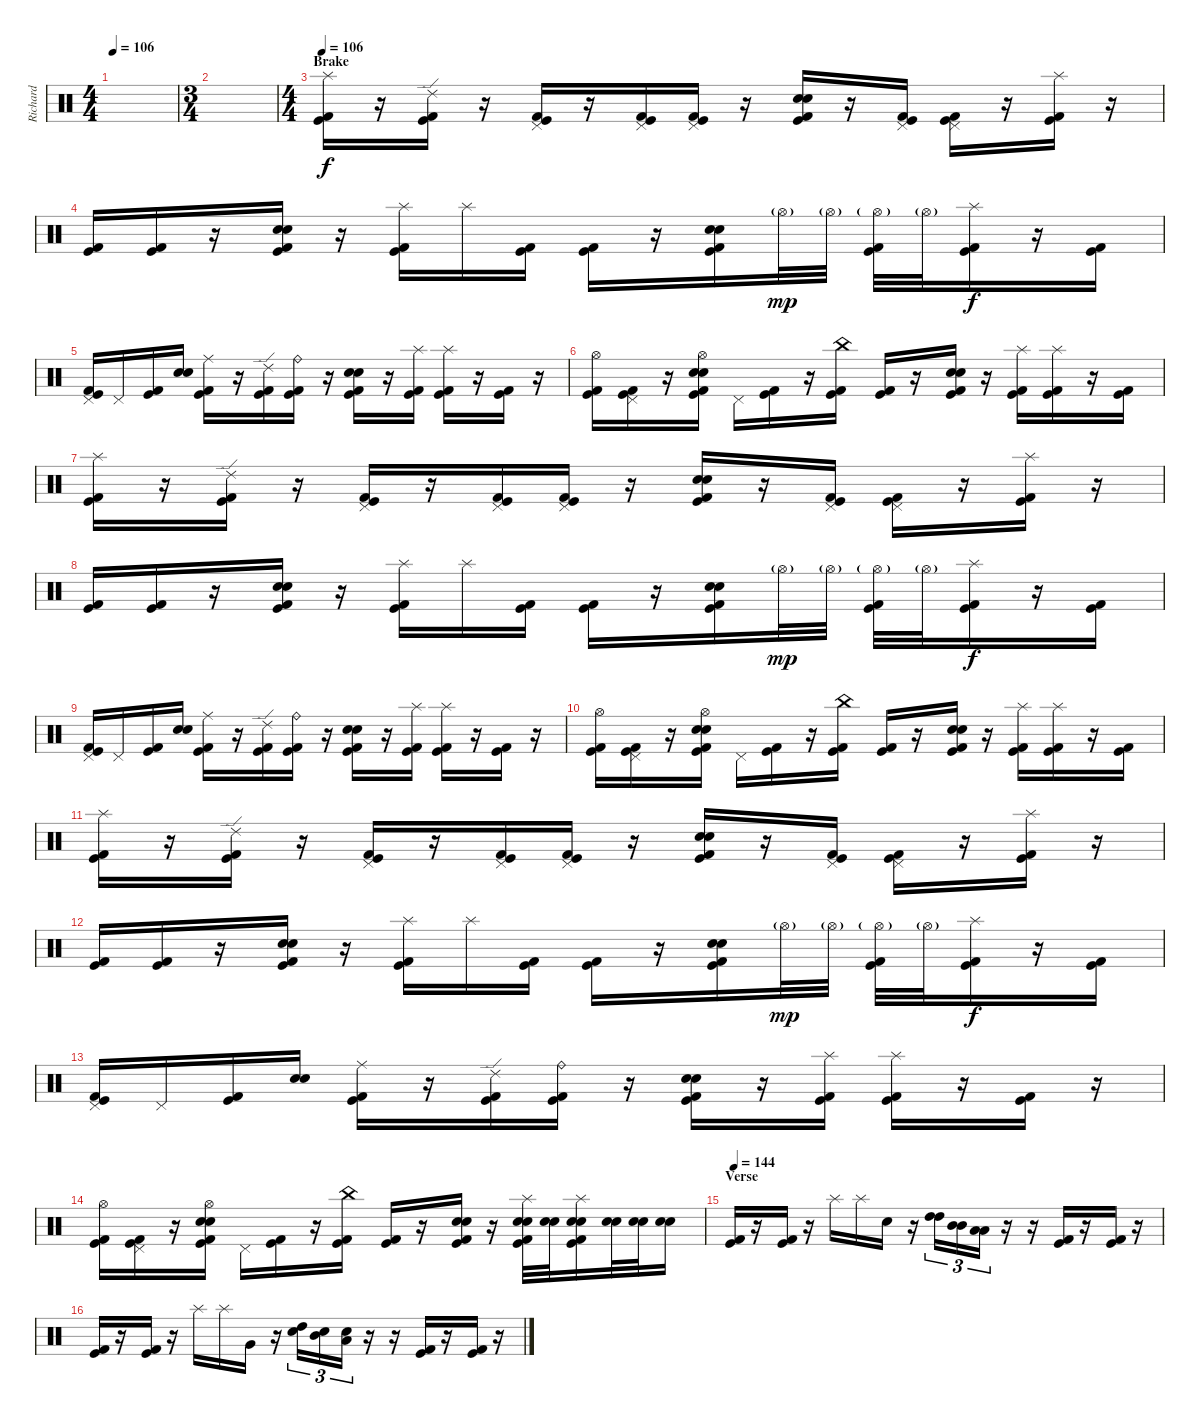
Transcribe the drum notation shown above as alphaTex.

\track ("Richard" "Richard") {instrument percussion}
\staff {score}
\articulation defaults
\ts (4 4)
\tempo 106
\clef neutral
\ks c
|
\ts (3 4)
|
\ts (4 4)
\section ("" "Brake")
\tempo 106
("Splash (hit)" "Kick (hit)" "Kick (hit) 2").16 r.16 ("Ride (edge) 2" "Kick (hit)" "Kick (hit) 2").16 r.16 ("Pedal Hi-Hat (hit)" "Kick (hit)" "Kick (hit) 2").16 r.16 ("Pedal Hi-Hat (hit)" "Kick (hit)" "Kick (hit) 2").16 ("Pedal Hi-Hat (hit)" "Kick (hit)" "Kick (hit) 2").16 r.16 ("Snare (hit) 2" "Electric Snare (hit)" "Kick (hit)" "Kick (hit) 2").16 r.16 ("Pedal Hi-Hat (hit)" "Kick (hit)" "Kick (hit) 2").16 ("Pedal Hi-Hat (hit)" "Kick (hit)" "Kick (hit) 2").16 r.16 ("Splash (hit)" "Kick (hit)" "Kick (hit) 2").16 r.16 |
("Kick (hit)" "Kick (hit) 2").16 ("Kick (hit)" "Kick (hit) 2").16 r.16 ("Snare (hit) 2" "Electric Snare (hit)" "Kick (hit)" "Kick (hit) 2").16 r.16 ("Splash (hit)" "Kick (hit)" "Kick (hit) 2").16 "Splash (hit)".16 ("Kick (hit)" "Kick (hit) 2").16 ("Kick (hit)" "Kick (hit) 2").16 r.16 ("Snare (hit) 2" "Electric Snare (hit)" "Kick (hit)" "Kick (hit) 2").16 "Hi-Hat (open)"{g}.32{dy mp} "Hi-Hat (open)"{g}.32 ("Hi-Hat (open)"{g} "Kick (hit)" "Kick (hit) 2").32 "Hi-Hat (open)"{g}.32 ("Splash (hit)" "Kick (hit)" "Kick (hit) 2").16{dy f} r.16 ("Kick (hit)" "Kick (hit) 2").16 |
("Pedal Hi-Hat (hit)" "Kick (hit)" "Kick (hit) 2").16 "Pedal Hi-Hat (hit)".16 ("Kick (hit)" "Kick (hit) 2").16 ("Snare (hit) 2" "Electric Snare (hit)").16 ("Ride (middle)" "Kick (hit)" "Kick (hit) 2").16 r.16 ("Ride (edge) 2" "Kick (hit)" "Kick (hit) 2").16 ("Ride (bell)" "Kick (hit)" "Kick (hit) 2").16 r.16 ("Snare (hit) 2" "Electric Snare (hit)" "Kick (hit)" "Kick (hit) 2").16 r.16 ("Splash (hit)" "Kick (hit)" "Kick (hit) 2").16 ("Splash (hit)" "Kick (hit)" "Kick (hit) 2").16 r.16 ("Kick (hit)" "Kick (hit) 2").16 r.16 |
("Hi-Hat (open)" "Kick (hit)" "Kick (hit) 2").16 ("Pedal Hi-Hat (hit)" "Kick (hit)" "Kick (hit) 2").16 r.16 ("Hi-Hat (open)" "Snare (hit) 2" "Electric Snare (hit)" "Kick (hit)" "Kick (hit) 2").16 "Pedal Hi-Hat (hit)".16 ("Kick (hit)" "Kick (hit) 2").16 r.16 ("China (hit)" "Kick (hit)" "Kick (hit) 2").16 ("Kick (hit)" "Kick (hit) 2").16 r.16 ("Snare (hit) 2" "Electric Snare (hit)" "Kick (hit)" "Kick (hit) 2").16 r.16 ("Splash (hit)" "Kick (hit)" "Kick (hit) 2").16 ("Splash (hit)" "Kick (hit)" "Kick (hit) 2").16 r.16 ("Kick (hit)" "Kick (hit) 2").16 |
("Splash (hit)" "Kick (hit)" "Kick (hit) 2").16 r.16 ("Ride (edge) 2" "Kick (hit)" "Kick (hit) 2").16 r.16 ("Pedal Hi-Hat (hit)" "Kick (hit)" "Kick (hit) 2").16 r.16 ("Pedal Hi-Hat (hit)" "Kick (hit)" "Kick (hit) 2").16 ("Pedal Hi-Hat (hit)" "Kick (hit)" "Kick (hit) 2").16 r.16 ("Snare (hit) 2" "Electric Snare (hit)" "Kick (hit)" "Kick (hit) 2").16 r.16 ("Pedal Hi-Hat (hit)" "Kick (hit)" "Kick (hit) 2").16 ("Pedal Hi-Hat (hit)" "Kick (hit)" "Kick (hit) 2").16 r.16 ("Splash (hit)" "Kick (hit)" "Kick (hit) 2").16 r.16 |
("Kick (hit)" "Kick (hit) 2").16 ("Kick (hit)" "Kick (hit) 2").16 r.16 ("Snare (hit) 2" "Electric Snare (hit)" "Kick (hit)" "Kick (hit) 2").16 r.16 ("Splash (hit)" "Kick (hit)" "Kick (hit) 2").16 "Splash (hit)".16 ("Kick (hit)" "Kick (hit) 2").16 ("Kick (hit)" "Kick (hit) 2").16 r.16 ("Snare (hit) 2" "Electric Snare (hit)" "Kick (hit)" "Kick (hit) 2").16 "Hi-Hat (open)"{g}.32{dy mp} "Hi-Hat (open)"{g}.32 ("Hi-Hat (open)"{g} "Kick (hit)" "Kick (hit) 2").32 "Hi-Hat (open)"{g}.32 ("Splash (hit)" "Kick (hit)" "Kick (hit) 2").16{dy f} r.16 ("Kick (hit)" "Kick (hit) 2").16 |
("Pedal Hi-Hat (hit)" "Kick (hit)" "Kick (hit) 2").16 "Pedal Hi-Hat (hit)".16 ("Kick (hit)" "Kick (hit) 2").16 ("Snare (hit) 2" "Electric Snare (hit)").16 ("Ride (middle)" "Kick (hit)" "Kick (hit) 2").16 r.16 ("Ride (edge) 2" "Kick (hit)" "Kick (hit) 2").16 ("Ride (bell)" "Kick (hit)" "Kick (hit) 2").16 r.16 ("Snare (hit) 2" "Electric Snare (hit)" "Kick (hit)" "Kick (hit) 2").16 r.16 ("Splash (hit)" "Kick (hit)" "Kick (hit) 2").16 ("Splash (hit)" "Kick (hit)" "Kick (hit) 2").16 r.16 ("Kick (hit)" "Kick (hit) 2").16 r.16 |
("Hi-Hat (open)" "Kick (hit)" "Kick (hit) 2").16 ("Pedal Hi-Hat (hit)" "Kick (hit)" "Kick (hit) 2").16 r.16 ("Hi-Hat (open)" "Snare (hit) 2" "Electric Snare (hit)" "Kick (hit)" "Kick (hit) 2").16 "Pedal Hi-Hat (hit)".16 ("Kick (hit)" "Kick (hit) 2").16 r.16 ("China (hit)" "Kick (hit)" "Kick (hit) 2").16 ("Kick (hit)" "Kick (hit) 2").16 r.16 ("Snare (hit) 2" "Electric Snare (hit)" "Kick (hit)" "Kick (hit) 2").16 r.16 ("Splash (hit)" "Kick (hit)" "Kick (hit) 2").16 ("Splash (hit)" "Kick (hit)" "Kick (hit) 2").16 r.16 ("Kick (hit)" "Kick (hit) 2").16 |
("Splash (hit)" "Kick (hit)" "Kick (hit) 2").16 r.16 ("Ride (edge) 2" "Kick (hit)" "Kick (hit) 2").16 r.16 ("Pedal Hi-Hat (hit)" "Kick (hit)" "Kick (hit) 2").16 r.16 ("Pedal Hi-Hat (hit)" "Kick (hit)" "Kick (hit) 2").16 ("Pedal Hi-Hat (hit)" "Kick (hit)" "Kick (hit) 2").16 r.16 ("Snare (hit) 2" "Electric Snare (hit)" "Kick (hit)" "Kick (hit) 2").16 r.16 ("Pedal Hi-Hat (hit)" "Kick (hit)" "Kick (hit) 2").16 ("Pedal Hi-Hat (hit)" "Kick (hit)" "Kick (hit) 2").16 r.16 ("Splash (hit)" "Kick (hit)" "Kick (hit) 2").16 r.16 |
("Kick (hit)" "Kick (hit) 2").16 ("Kick (hit)" "Kick (hit) 2").16 r.16 ("Snare (hit) 2" "Electric Snare (hit)" "Kick (hit)" "Kick (hit) 2").16 r.16 ("Splash (hit)" "Kick (hit)" "Kick (hit) 2").16 "Splash (hit)".16 ("Kick (hit)" "Kick (hit) 2").16 ("Kick (hit)" "Kick (hit) 2").16 r.16 ("Snare (hit) 2" "Electric Snare (hit)" "Kick (hit)" "Kick (hit) 2").16 "Hi-Hat (open)"{g}.32{dy mp} "Hi-Hat (open)"{g}.32 ("Hi-Hat (open)"{g} "Kick (hit)" "Kick (hit) 2").32 "Hi-Hat (open)"{g}.32 ("Splash (hit)" "Kick (hit)" "Kick (hit) 2").16{dy f} r.16 ("Kick (hit)" "Kick (hit) 2").16 |
("Pedal Hi-Hat (hit)" "Kick (hit)" "Kick (hit) 2").16 "Pedal Hi-Hat (hit)".16 ("Kick (hit)" "Kick (hit) 2").16 ("Snare (hit) 2" "Electric Snare (hit)").16 ("Ride (middle)" "Kick (hit)" "Kick (hit) 2").16 r.16 ("Ride (edge) 2" "Kick (hit)" "Kick (hit) 2").16 ("Ride (bell)" "Kick (hit)" "Kick (hit) 2").16 r.16 ("Snare (hit) 2" "Electric Snare (hit)" "Kick (hit)" "Kick (hit) 2").16 r.16 ("Splash (hit)" "Kick (hit)" "Kick (hit) 2").16 ("Splash (hit)" "Kick (hit)" "Kick (hit) 2").16 r.16 ("Kick (hit)" "Kick (hit) 2").16 r.16 |
("Hi-Hat (open)" "Kick (hit)" "Kick (hit) 2").16 ("Pedal Hi-Hat (hit)" "Kick (hit)" "Kick (hit) 2").16 r.16 ("Hi-Hat (open)" "Snare (hit) 2" "Electric Snare (hit)" "Kick (hit)" "Kick (hit) 2").16 "Pedal Hi-Hat (hit)".16 ("Kick (hit)" "Kick (hit) 2").16 r.16 ("China (hit)" "Kick (hit)" "Kick (hit) 2").16 ("Kick (hit)" "Kick (hit) 2").16 r.16 ("Snare (hit) 2" "Electric Snare (hit)" "Kick (hit)" "Kick (hit) 2").16 r.16 ("Splash (hit)" "Snare (hit) 2" "Electric Snare (hit)" "Kick (hit)" "Kick (hit) 2").32 ("Snare (hit) 2" "Electric Snare (hit)").32 ("Splash (hit)" "Snare (hit) 2" "Electric Snare (hit)" "Kick (hit)" "Kick (hit) 2").16 ("Snare (hit) 2" "Electric Snare (hit)").32 ("Snare (hit) 2" "Electric Snare (hit)").32 ("Snare (hit) 2" "Electric Snare (hit)").16 |
\section ("" "Verse")
\tempo 144
("Kick (hit) 2" "Kick (hit)").16 r.16 ("Kick (hit) 2" "Kick (hit)").16 r.16 "Splash (hit)".16 "Splash (hit)".16 "Snare (hit) 2".16 r.16 ("High Tom (hit)" "High Tom (hit)").16{tu (3 2)} ("Mid Tom (hit)" "Mid Tom (hit)").16{tu (3 2)} ("Low Tom (hit)" "Low Tom (hit)").16{tu (3 2)} r.16 r.16 ("Kick (hit) 2" "Kick (hit)").16 r.16 ("Kick (hit) 2" "Kick (hit)").16 r.16 |
("Kick (hit) 2" "Kick (hit)").16 r.16 ("Kick (hit) 2" "Kick (hit)").16 r.16 "Splash (hit)".16 "Splash (hit)".16 "Very Low Tom (hit)".16 r.16 ("Snare (hit) 2" "High Tom (hit)").16{tu (3 2)} ("Snare (hit) 2" "Mid Tom (hit)").16{tu (3 2)} ("Snare (hit) 2" "Low Tom (hit)").16{tu (3 2)} r.16 r.16 ("Kick (hit)" "Kick (hit) 2").16 r.16 ("Kick (hit)" "Kick (hit) 2").16 r.16
